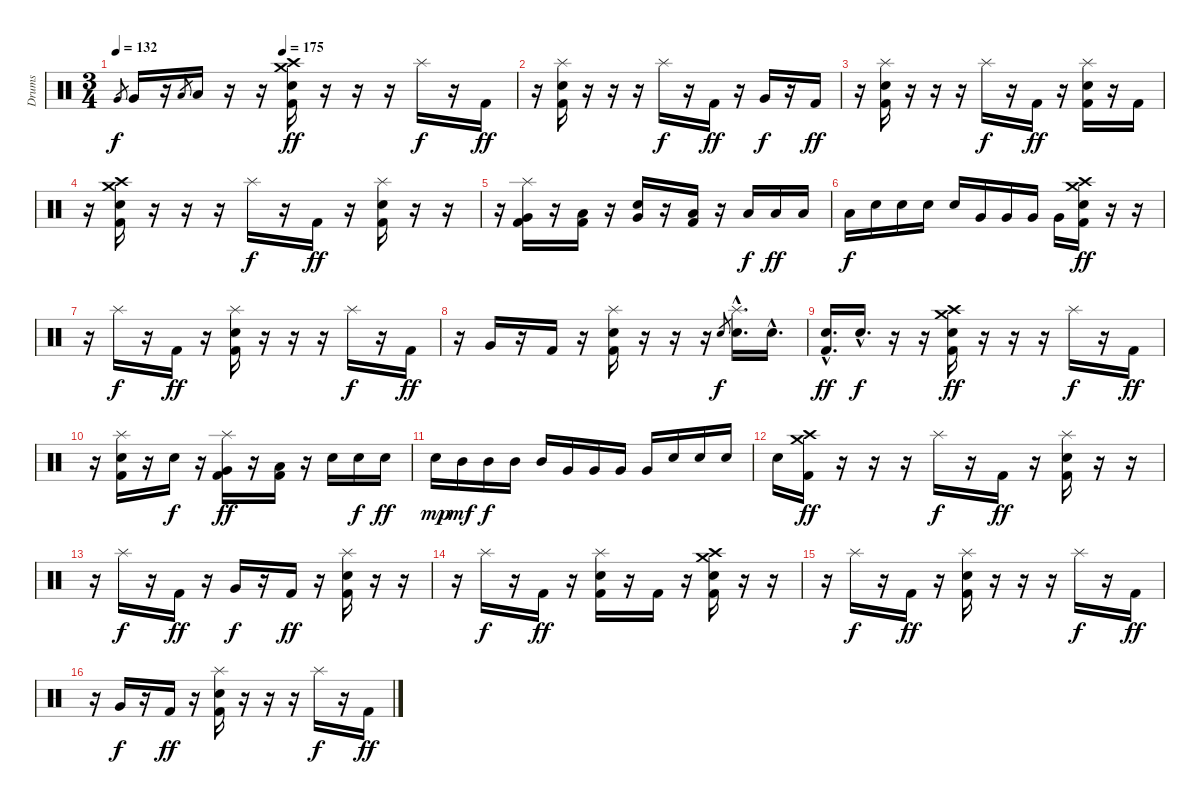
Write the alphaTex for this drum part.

\track ("Drums" "Drums") {instrument percussion}
\staff {score}
\articulation defaults
\ts (3 4)
\tempo 132
\tempo (175 0.4166666666666667)
\clef neutral
\ks c "Very Low Tom (hit)".8{gr dy f} "Very Low Tom (hit)".16
r.16 "Low Floor Tom (hit)".8{gr} "Low Floor Tom (hit)".16 r.16 r.16 ("Crash medium (hit)" "Crash high (hit)" "Snare (hit) 2" "Kick (hit) 2").16{dy ff} r.16 r.16 r.16 "Splash (hit)".16{dy f} r.16 "Kick (hit) 2".16{dy ff} |
r.16 ("Splash (hit)" "Snare (hit) 2" "Kick (hit) 2").16 r.16 r.16 r.16 "Splash (hit)".16{dy f} r.16 "Kick (hit) 2".16{dy ff} r.16 "Very Low Tom (hit)".16{dy f} r.16 "Kick (hit) 2".16{dy ff} |
r.16 ("Splash (hit)" "Snare (hit) 2" "Kick (hit) 2").16 r.16 r.16 r.16 "Splash (hit)".16{dy f} r.16 "Kick (hit) 2".16{dy ff} r.16 ("Splash (hit)" "Snare (hit) 2" "Kick (hit) 2").16 r.16 "Kick (hit) 2".16 |
r.16 ("Crash medium (hit)" "Crash high (hit)" "Snare (hit) 2" "Kick (hit) 2").16 r.16 r.16 r.16 "Splash (hit)".16{dy f} r.16 "Kick (hit) 2".16{dy ff} r.16 ("Splash (hit)" "Snare (hit) 2" "Kick (hit) 2").16 r.16 r.16 |
r.16 ("Splash (hit)" "Very Low Tom (hit)" "Kick (hit) 2").16 r.16 ("Low Floor Tom (hit)" "Kick (hit) 2").16 r.16 ("Snare (hit) 2" "Very Low Tom (hit)").16 r.16 ("Kick (hit) 2" "Low Floor Tom (hit)").16 r.16 "Low Tom (hit)".16{dy f} "Low Tom (hit)".16{dy ff} "Low Tom (hit)".16 |
"Low Tom (hit)".16{dy f} "Snare (hit) 2".16 "Snare (hit) 2".16 "Snare (hit) 2".16 "Snare (hit) 2".16 "Very Low Tom (hit)".16 "Very Low Tom (hit)".16 "Very Low Tom (hit)".16 "Very Low Tom (hit)".16 ("Crash medium (hit)" "Crash high (hit)" "Snare (hit) 2" "Kick (hit) 2").16{dy ff} r.16 r.16 |
r.16 "Splash (hit)".16{dy f} r.16 "Kick (hit) 2".16{dy ff} r.16 ("Splash (hit)" "Snare (hit) 2" "Kick (hit) 2").16 r.16 r.16 r.16 "Splash (hit)".16{dy f} r.16 "Kick (hit) 2".16{dy ff} |
r.16 "Very Low Tom (hit)".16 r.16 "Kick (hit) 2".16 r.16 ("Splash (hit)" "Snare (hit) 2" "Kick (hit) 2").16 r.16 r.16 r.16 "Snare (hit) 2".8{gr dy f} ("Splash (hit)"{hac} "Snare (hit) 2"{hac}).16{d} "Snare (hit) 2"{hac}.16{d} |
("Snare (hit) 2"{hac} "Kick (hit) 2"{hac}).16{d dy ff} "Snare (hit) 2"{hac}.16{d dy f} r.16 r.16 ("Crash medium (hit)" "Crash high (hit)" "Snare (hit) 2" "Kick (hit) 2").16{dy ff} r.16 r.16 r.16 "Splash (hit)".16{dy f} r.16 "Kick (hit) 2".16{dy ff} |
r.16 ("Splash (hit)" "Snare (hit) 2" "Kick (hit) 2").16 r.16 "Snare (hit) 2".16{dy f} r.16 ("Splash (hit)" "Very Low Tom (hit)" "Kick (hit) 2").16{dy ff} r.16 ("Low Floor Tom (hit)" "Kick (hit) 2").16 r.16 "Snare (hit) 2".16 "Snare (hit) 2".16{dy f} "Snare (hit) 2".16{dy ff} |
"Snare (hit) 2".16{dy mp} "Mid Tom (hit)".16{dy mf} "Mid Tom (hit)".16{dy f} "Mid Tom (hit)".16 "Mid Tom (hit)".16 "Very Low Tom (hit)".16 "Very Low Tom (hit)".16 "Very Low Tom (hit)".16 "Very Low Tom (hit)".16 "Snare (hit) 2".16 "Snare (hit) 2".16 "Snare (hit) 2".16 |
"Snare (hit) 2".16 ("Crash medium (hit)" "Crash high (hit)" "Kick (hit) 2").16{dy ff} r.16 r.16 r.16 "Splash (hit)".16{dy f} r.16 "Kick (hit) 2".16{dy ff} r.16 ("Splash (hit)" "Snare (hit) 2" "Kick (hit) 2").16 r.16 r.16 |
r.16 "Splash (hit)".16{dy f} r.16 "Kick (hit) 2".16{dy ff} r.16 "Very Low Tom (hit)".16{dy f} r.16 "Kick (hit) 2".16{dy ff} r.16 ("Splash (hit)" "Snare (hit) 2" "Kick (hit) 2").16 r.16 r.16 |
r.16 "Splash (hit)".16{dy f} r.16 "Kick (hit) 2".16{dy ff} r.16 ("Splash (hit)" "Snare (hit) 2" "Kick (hit) 2").16 r.16 "Kick (hit) 2".16 r.16 ("Crash medium (hit)" "Crash high (hit)" "Snare (hit) 2" "Kick (hit) 2").16 r.16 r.16 |
r.16 "Splash (hit)".16{dy f} r.16 "Kick (hit) 2".16{dy ff} r.16 ("Splash (hit)" "Snare (hit) 2" "Kick (hit) 2").16 r.16 r.16 r.16 "Splash (hit)".16{dy f} r.16 "Kick (hit) 2".16{dy ff} |
r.16 "Very Low Tom (hit)".16{dy f} r.16 "Kick (hit) 2".16{dy ff} r.16 ("Splash (hit)" "Snare (hit) 2" "Kick (hit) 2").16 r.16 r.16 r.16 "Splash (hit)".16{dy f} r.16 "Kick (hit) 2".16{dy ff}
